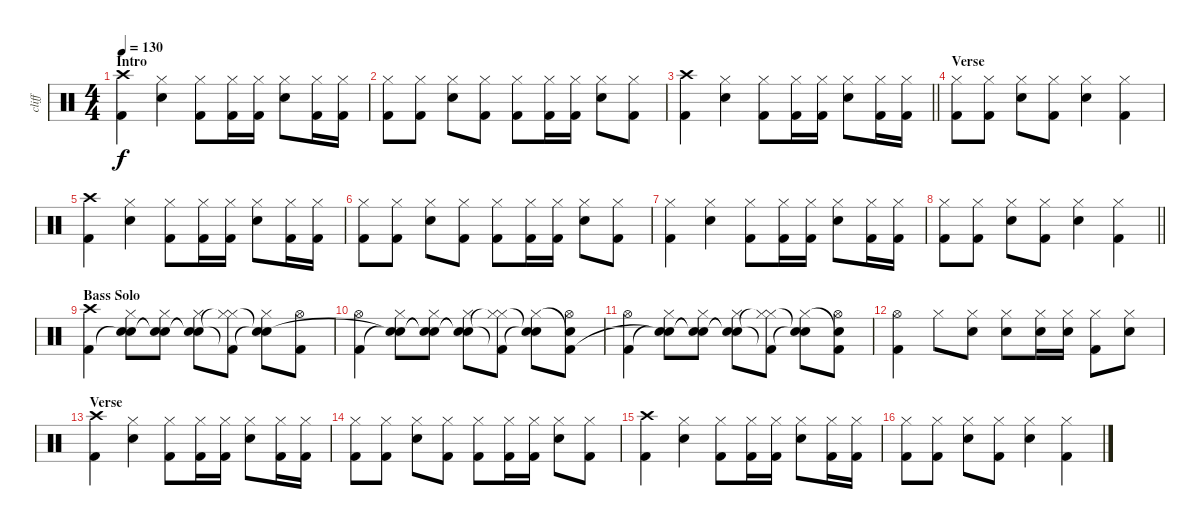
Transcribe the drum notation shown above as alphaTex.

\track ("cliff" "cliff") {instrument percussion}
\staff {score}
\articulation defaults
\ts (4 4)
\section ("" "Intro")
\tempo 130
\clef neutral
\ks c
("Crash high (hit)" "Kick (hit) 2").4{dy f} ("Electric Snare (hit)" "Hi-Hat (closed)").4 ("Hi-Hat (closed)" "Kick (hit) 2").8 ("Hi-Hat (closed)" "Kick (hit) 2").16 ("Hi-Hat (closed)" "Kick (hit) 2").16 ("Electric Snare (hit)" "Hi-Hat (closed)").8 ("Hi-Hat (closed)" "Kick (hit) 2").16 ("Hi-Hat (closed)" "Kick (hit) 2").16 |
("Hi-Hat (closed)" "Kick (hit) 2").8 ("Hi-Hat (closed)" "Kick (hit) 2").8 ("Electric Snare (hit)" "Hi-Hat (closed)").8 ("Hi-Hat (closed)" "Kick (hit) 2").8 ("Hi-Hat (closed)" "Kick (hit) 2").8 ("Hi-Hat (closed)" "Kick (hit) 2").16 ("Hi-Hat (closed)" "Kick (hit) 2").16 ("Electric Snare (hit)" "Hi-Hat (closed)").8 ("Hi-Hat (closed)" "Kick (hit) 2").8 |
\barLineRight lightlight
("Crash high (hit)" "Kick (hit) 2").4 ("Electric Snare (hit)" "Hi-Hat (closed)").4 ("Hi-Hat (closed)" "Kick (hit) 2").8 ("Hi-Hat (closed)" "Kick (hit) 2").16 ("Hi-Hat (closed)" "Kick (hit) 2").16 ("Electric Snare (hit)" "Hi-Hat (closed)").8 ("Hi-Hat (closed)" "Kick (hit) 2").16 ("Hi-Hat (closed)" "Kick (hit) 2").16 |
\section ("" "Verse")
("Hi-Hat (closed)" "Kick (hit) 2").8 ("Hi-Hat (closed)" "Kick (hit) 2").8 ("Electric Snare (hit)" "Hi-Hat (closed)").8 ("Hi-Hat (closed)" "Kick (hit) 2").8 ("Electric Snare (hit)" "Hi-Hat (closed)").4 ("Hi-Hat (closed)" "Kick (hit) 2").4 |
("Crash high (hit)" "Kick (hit) 2").4 ("Electric Snare (hit)" "Hi-Hat (closed)").4 ("Hi-Hat (closed)" "Kick (hit) 2").8 ("Hi-Hat (closed)" "Kick (hit) 2").16 ("Hi-Hat (closed)" "Kick (hit) 2").16 ("Electric Snare (hit)" "Hi-Hat (closed)").8 ("Hi-Hat (closed)" "Kick (hit) 2").16 ("Hi-Hat (closed)" "Kick (hit) 2").16 |
("Hi-Hat (closed)" "Kick (hit) 2").8 ("Hi-Hat (closed)" "Kick (hit) 2").8 ("Electric Snare (hit)" "Hi-Hat (closed)").8 ("Hi-Hat (closed)" "Kick (hit) 2").8 ("Hi-Hat (closed)" "Kick (hit) 2").8 ("Hi-Hat (closed)" "Kick (hit) 2").16 ("Hi-Hat (closed)" "Kick (hit) 2").16 ("Electric Snare (hit)" "Hi-Hat (closed)").8 ("Hi-Hat (closed)" "Kick (hit) 2").8 |
("Hi-Hat (closed)" "Kick (hit) 2").4 ("Electric Snare (hit)" "Hi-Hat (closed)").4 ("Hi-Hat (closed)" "Kick (hit) 2").8 ("Hi-Hat (closed)" "Kick (hit) 2").16 ("Hi-Hat (closed)" "Kick (hit) 2").16 ("Electric Snare (hit)" "Hi-Hat (closed)").8 ("Hi-Hat (closed)" "Kick (hit) 2").16 ("Hi-Hat (closed)" "Kick (hit) 2").16 |
\barLineRight lightlight
("Hi-Hat (closed)" "Kick (hit) 2").8 ("Hi-Hat (closed)" "Kick (hit) 2").8 ("Electric Snare (hit)" "Hi-Hat (closed)").8 ("Hi-Hat (closed)" "Kick (hit) 2").8 ("Electric Snare (hit)" "Hi-Hat (closed)").4 ("Hi-Hat (closed)" "Kick (hit) 2").4 |
\section ("" "Bass Solo")
("Crash high (hit)" "Kick (hit) 2").4 ("Hi-Hat (closed)" "Snare (hit)"{t} "Snare (hit)").8 ("Hi-Hat (closed)" "Snare (hit)"{t} "Snare (hit)"{t}).8 ("Hi-Hat (closed)" "Snare (hit)"{t} "Snare (hit)"{t}).8 ("Hi-Hat (closed)" "Hi-Hat (closed)"{t} "Kick (hit) 2"{t}).8 ("Hi-Hat (closed)" "Snare (hit)"{t} "Snare (hit)"{t}).8 ("Hi-Hat (open)" "Kick (hit) 2").8 |
("Hi-Hat (open)" "Kick (hit) 2").4 ("Hi-Hat (closed)" "Snare (hit)"{t} "Snare (hit)"{t}).8 ("Hi-Hat (closed)" "Snare (hit)"{t} "Snare (hit)"{t}).8 ("Hi-Hat (closed)" "Snare (hit)"{t} "Snare (hit)"{t}).8 ("Hi-Hat (closed)" "Hi-Hat (closed)"{t} "Kick (hit) 2"{t}).8 ("Hi-Hat (closed)" "Snare (hit)"{t} "Snare (hit)"{t}).8 ("Snare (hit)"{t} "Hi-Hat (open)" "Kick (hit) 2").8 |
("Hi-Hat (open)" "Kick (hit) 2").4 ("Hi-Hat (closed)" "Snare (hit)"{t} "Snare (hit)"{t}).8 ("Hi-Hat (closed)" "Snare (hit)"{t} "Snare (hit)"{t}).8 ("Hi-Hat (closed)" "Snare (hit)"{t} "Snare (hit)"{t}).8 ("Hi-Hat (closed)" "Hi-Hat (closed)"{t} "Kick (hit) 2"{t}).8 ("Hi-Hat (closed)" "Snare (hit)"{t} "Snare (hit)"{t}).8 ("Snare (hit)"{t} "Hi-Hat (open)" "Kick (hit) 2").8 |
("Hi-Hat (open)" "Kick (hit) 2").4 "Hi-Hat (closed)".8 ("Hi-Hat (closed)" "Electric Snare (hit)").8 ("Hi-Hat (closed)" "Electric Snare (hit)").8 ("Hi-Hat (closed)" "Electric Snare (hit)").16 ("Hi-Hat (closed)" "Electric Snare (hit)").16 ("Hi-Hat (closed)" "Kick (hit) 2").8 ("Hi-Hat (closed)" "Electric Snare (hit)").8 |
\section ("" "Verse")
("Crash high (hit)" "Kick (hit) 2").4 ("Electric Snare (hit)" "Hi-Hat (closed)").4 ("Hi-Hat (closed)" "Kick (hit) 2").8 ("Hi-Hat (closed)" "Kick (hit) 2").16 ("Hi-Hat (closed)" "Kick (hit) 2").16 ("Electric Snare (hit)" "Hi-Hat (closed)").8 ("Hi-Hat (closed)" "Kick (hit) 2").16 ("Hi-Hat (closed)" "Kick (hit) 2").16 |
("Hi-Hat (closed)" "Kick (hit) 2").8 ("Hi-Hat (closed)" "Kick (hit) 2").8 ("Electric Snare (hit)" "Hi-Hat (closed)").8 ("Hi-Hat (closed)" "Kick (hit) 2").8 ("Hi-Hat (closed)" "Kick (hit) 2").8 ("Hi-Hat (closed)" "Kick (hit) 2").16 ("Hi-Hat (closed)" "Kick (hit) 2").16 ("Electric Snare (hit)" "Hi-Hat (closed)").8 ("Hi-Hat (closed)" "Kick (hit) 2").8 |
("Crash high (hit)" "Kick (hit) 2").4 ("Electric Snare (hit)" "Hi-Hat (closed)").4 ("Hi-Hat (closed)" "Kick (hit) 2").8 ("Hi-Hat (closed)" "Kick (hit) 2").16 ("Hi-Hat (closed)" "Kick (hit) 2").16 ("Electric Snare (hit)" "Hi-Hat (closed)").8 ("Hi-Hat (closed)" "Kick (hit) 2").16 ("Hi-Hat (closed)" "Kick (hit) 2").16 |
("Hi-Hat (closed)" "Kick (hit) 2").8 ("Hi-Hat (closed)" "Kick (hit) 2").8 ("Electric Snare (hit)" "Hi-Hat (closed)").8 ("Hi-Hat (closed)" "Kick (hit) 2").8 ("Electric Snare (hit)" "Hi-Hat (closed)").4 ("Hi-Hat (closed)" "Kick (hit) 2").4
